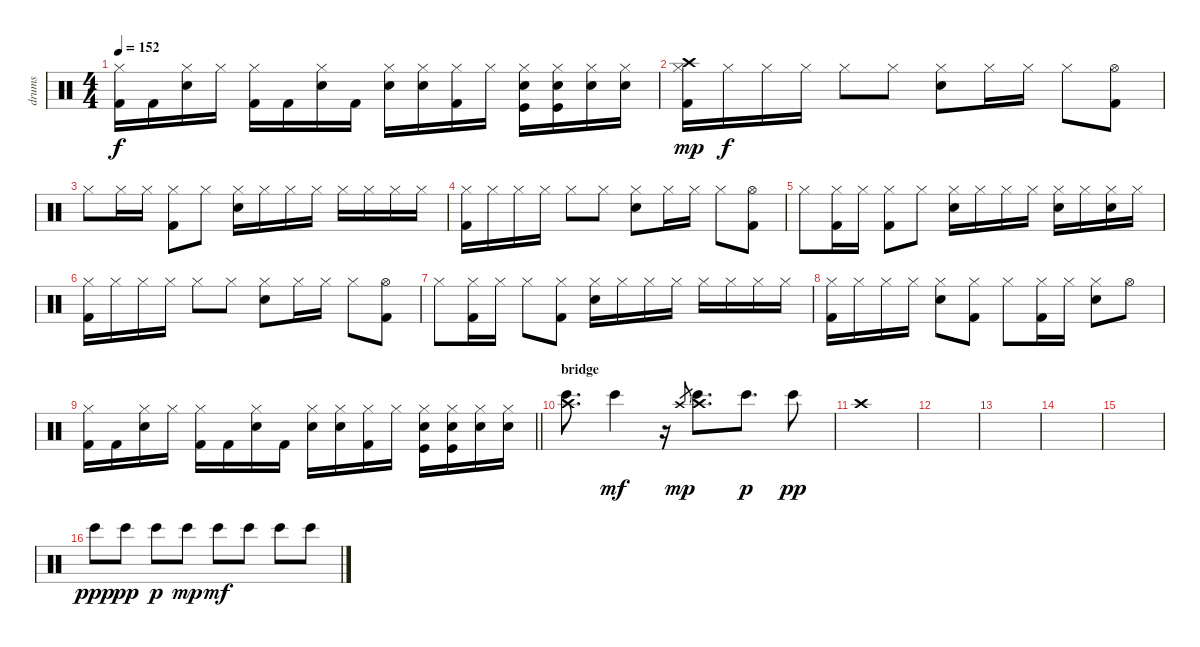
\track ("drums" "drums") {instrument percussion}
\staff {score}
\articulation defaults
\ts (4 4)
\tempo 152
\clef neutral
\ks c
("Hi-Hat (closed)" "Kick (hit) 2").16{dy f} "Kick (hit) 2".16 ("Hi-Hat (closed)" "Snare (hit) 2").16 "Hi-Hat (closed)".16 ("Hi-Hat (closed)" "Kick (hit) 2").16 "Kick (hit) 2".16 ("Hi-Hat (closed)" "Snare (hit) 2").16 "Kick (hit) 2".16 ("Hi-Hat (closed)" "Snare (hit) 2").16 ("Hi-Hat (closed)" "Snare (hit) 2").16 ("Hi-Hat (closed)" "Kick (hit) 2").16 "Hi-Hat (closed)".16 ("Hi-Hat (closed)" "Snare (hit) 2" "Kick (hit)").16 ("Hi-Hat (closed)" "Snare (hit) 2" "Kick (hit)").16 ("Hi-Hat (closed)" "Snare (hit) 2").16 ("Hi-Hat (closed)" "Snare (hit) 2").16 |
("Hi-Hat (closed)" "Kick (hit) 2" "Crash high (hit)").16{dy mp} "Hi-Hat (closed)".16{dy f} "Hi-Hat (closed)".16 "Hi-Hat (closed)".16 "Hi-Hat (closed)".8 "Hi-Hat (closed)".8 ("Snare (hit) 2" "Hi-Hat (closed)").8 "Hi-Hat (closed)".16 "Hi-Hat (closed)".16 "Hi-Hat (closed)".8 ("Hi-Hat (open)" "Kick (hit) 2").8 |
"Hi-Hat (closed)".8 "Hi-Hat (closed)".16 "Hi-Hat (closed)".16 ("Hi-Hat (closed)" "Kick (hit) 2").8 "Hi-Hat (closed)".8 ("Hi-Hat (closed)" "Snare (hit) 2").16 "Hi-Hat (closed)".16 "Hi-Hat (closed)".16 "Hi-Hat (closed)".16 "Hi-Hat (closed)".16 "Hi-Hat (closed)".16 "Hi-Hat (closed)".16 "Hi-Hat (closed)".16 |
("Hi-Hat (closed)" "Kick (hit) 2").16 "Hi-Hat (closed)".16 "Hi-Hat (closed)".16 "Hi-Hat (closed)".16 "Hi-Hat (closed)".8 "Hi-Hat (closed)".8 ("Snare (hit) 2" "Hi-Hat (closed)").8 "Hi-Hat (closed)".16 "Hi-Hat (closed)".16 "Hi-Hat (closed)".8 ("Hi-Hat (open)" "Kick (hit) 2").8 |
"Hi-Hat (closed)".8 ("Hi-Hat (closed)" "Kick (hit) 2").16 "Hi-Hat (closed)".16 ("Hi-Hat (closed)" "Kick (hit) 2").8 "Hi-Hat (closed)".8 ("Hi-Hat (closed)" "Snare (hit) 2").16 "Hi-Hat (closed)".16 "Hi-Hat (closed)".16 "Hi-Hat (closed)".16 ("Hi-Hat (closed)" "Snare (hit) 2").16 "Hi-Hat (closed)".16 ("Hi-Hat (closed)" "Snare (hit) 2").16 "Hi-Hat (closed)".16 |
("Hi-Hat (closed)" "Kick (hit) 2").16 "Hi-Hat (closed)".16 "Hi-Hat (closed)".16 "Hi-Hat (closed)".16 "Hi-Hat (closed)".8 "Hi-Hat (closed)".8 ("Snare (hit) 2" "Hi-Hat (closed)").8 "Hi-Hat (closed)".16 "Hi-Hat (closed)".16 "Hi-Hat (closed)".8 ("Hi-Hat (open)" "Kick (hit) 2").8 |
"Hi-Hat (closed)".8 ("Hi-Hat (closed)" "Kick (hit) 2").16 "Hi-Hat (closed)".16 "Hi-Hat (closed)".8 ("Hi-Hat (closed)" "Kick (hit) 2").8 ("Hi-Hat (closed)" "Snare (hit) 2").16 "Hi-Hat (closed)".16 "Hi-Hat (closed)".16 "Hi-Hat (closed)".16 "Hi-Hat (closed)".16 "Hi-Hat (closed)".16 "Hi-Hat (closed)".16 "Hi-Hat (closed)".16 |
("Hi-Hat (closed)" "Kick (hit) 2").16 "Hi-Hat (closed)".16 "Hi-Hat (closed)".16 "Hi-Hat (closed)".16 ("Hi-Hat (closed)" "Snare (hit) 2").8 ("Hi-Hat (closed)" "Kick (hit) 2").8 "Hi-Hat (closed)".8 ("Hi-Hat (closed)" "Kick (hit) 2").16 "Hi-Hat (closed)".16 ("Hi-Hat (closed)" "Snare (hit) 2").8 "Hi-Hat (open)".8 |
\barLineRight lightlight
("Hi-Hat (closed)" "Kick (hit) 2").16 "Kick (hit) 2".16 ("Hi-Hat (closed)" "Snare (hit) 2").16 "Hi-Hat (closed)".16 ("Hi-Hat (closed)" "Kick (hit) 2").16 "Kick (hit) 2".16 ("Hi-Hat (closed)" "Snare (hit) 2").16 "Kick (hit) 2".16 ("Hi-Hat (closed)" "Snare (hit) 2").16 ("Hi-Hat (closed)" "Snare (hit) 2").16 ("Hi-Hat (closed)" "Kick (hit) 2").16 "Hi-Hat (closed)".16 ("Hi-Hat (closed)" "Snare (hit) 2" "Kick (hit)").16 ("Hi-Hat (closed)" "Snare (hit) 2" "Kick (hit)").16 ("Hi-Hat (closed)" "Snare (hit) 2").16 ("Hi-Hat (closed)" "Snare (hit) 2").16 |
\section ("" "bridge")
("Bongo High (hit)" "Crash high (hit)").8{d} "Bongo High (hit)".4{dy mf} r.16 "Crash high (hit)".8{gr dy mp} ("Crash high (hit)" "Bongo High (hit)").8{d} "Bongo High (hit)".8{d dy p} "Bongo High (hit)".8{dy pp} |
"Crash high (hit)".1 |
|
|
|
|
"Bongo High (hit)".8{dy ppp} "Bongo High (hit)".8{dy pp} "Bongo High (hit)".8{dy p} "Bongo High (hit)".8{dy mp} "Bongo High (hit)".8{dy mf} "Bongo High (hit)".8 "Bongo High (hit)".8 "Bongo High (hit)".8
